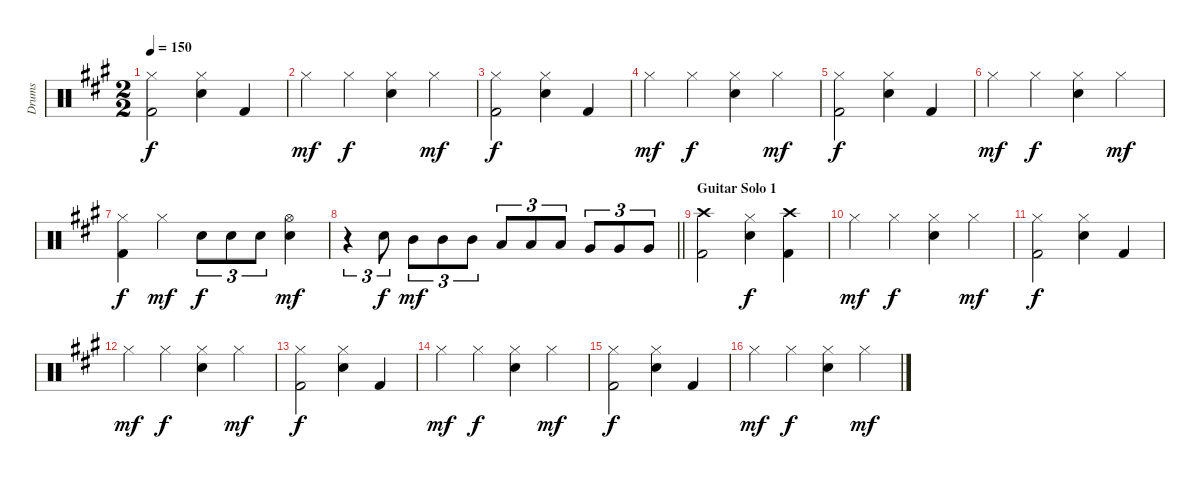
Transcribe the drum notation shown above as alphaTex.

\track ("Drums" "Drums") {instrument percussion}
\staff {score}
\articulation defaults
\ts (2 2)
\tempo 150
\clef neutral
\ks a
("Hi-Hat (closed)" "Kick (hit) 2").2{dy f} ("Hi-Hat (closed)" "Electric Snare (hit)").4 "Kick (hit) 2".4 |
"Hi-Hat (closed)".4{dy mf} "Hi-Hat (closed)".4{dy f} ("Hi-Hat (closed)" "Electric Snare (hit)").4 "Hi-Hat (closed)".4{dy mf} |
("Hi-Hat (closed)" "Kick (hit) 2").2{dy f} ("Hi-Hat (closed)" "Electric Snare (hit)").4 "Kick (hit) 2".4 |
"Hi-Hat (closed)".4{dy mf} "Hi-Hat (closed)".4{dy f} ("Hi-Hat (closed)" "Electric Snare (hit)").4 "Hi-Hat (closed)".4{dy mf} |
("Hi-Hat (closed)" "Kick (hit) 2").2{dy f} ("Hi-Hat (closed)" "Electric Snare (hit)").4 "Kick (hit) 2".4 |
"Hi-Hat (closed)".4{dy mf} "Hi-Hat (closed)".4{dy f} ("Hi-Hat (closed)" "Electric Snare (hit)").4 "Hi-Hat (closed)".4{dy mf} |
("Hi-Hat (closed)" "Kick (hit) 2").4{dy f} "Hi-Hat (closed)".4{dy mf} "Electric Snare (hit)".8{tu (3 2) dy f} "Electric Snare (hit)".8{tu (3 2)} "Electric Snare (hit)".8{tu (3 2)} ("Hi-Hat (open)" "Electric Snare (hit)").4{dy mf} |
\barLineRight lightlight
r.4{tu (3 2)} "Electric Snare (hit)".8{tu (3 2) dy f} "Mid Tom (hit)".8{tu (3 2) dy mf} "Mid Tom (hit)".8{tu (3 2)} "Mid Tom (hit)".8{tu (3 2)} "Low Tom (hit)".8{tu (3 2)} "Low Tom (hit)".8{tu (3 2)} "Low Tom (hit)".8{tu (3 2)} "Very Low Tom (hit)".8{tu (3 2)} "Very Low Tom (hit)".8{tu (3 2)} "Very Low Tom (hit)".8{tu (3 2)} |
\section ("" "Guitar Solo 1")
("Crash high (hit)" "Kick (hit) 2").2 ("Hi-Hat (closed)" "Electric Snare (hit)").4{dy f} ("Crash high (hit)" "Kick (hit) 2").4 |
"Hi-Hat (closed)".4{dy mf} "Hi-Hat (closed)".4{dy f} ("Hi-Hat (closed)" "Electric Snare (hit)").4 "Hi-Hat (closed)".4{dy mf} |
("Hi-Hat (closed)" "Kick (hit) 2").2{dy f} ("Hi-Hat (closed)" "Electric Snare (hit)").4 "Kick (hit) 2".4 |
"Hi-Hat (closed)".4{dy mf} "Hi-Hat (closed)".4{dy f} ("Hi-Hat (closed)" "Electric Snare (hit)").4 "Hi-Hat (closed)".4{dy mf} |
("Hi-Hat (closed)" "Kick (hit) 2").2{dy f} ("Hi-Hat (closed)" "Electric Snare (hit)").4 "Kick (hit) 2".4 |
"Hi-Hat (closed)".4{dy mf} "Hi-Hat (closed)".4{dy f} ("Hi-Hat (closed)" "Electric Snare (hit)").4 "Hi-Hat (closed)".4{dy mf} |
("Hi-Hat (closed)" "Kick (hit) 2").2{dy f} ("Hi-Hat (closed)" "Electric Snare (hit)").4 "Kick (hit) 2".4 |
"Hi-Hat (closed)".4{dy mf} "Hi-Hat (closed)".4{dy f} ("Hi-Hat (closed)" "Electric Snare (hit)").4 "Hi-Hat (closed)".4{dy mf}
